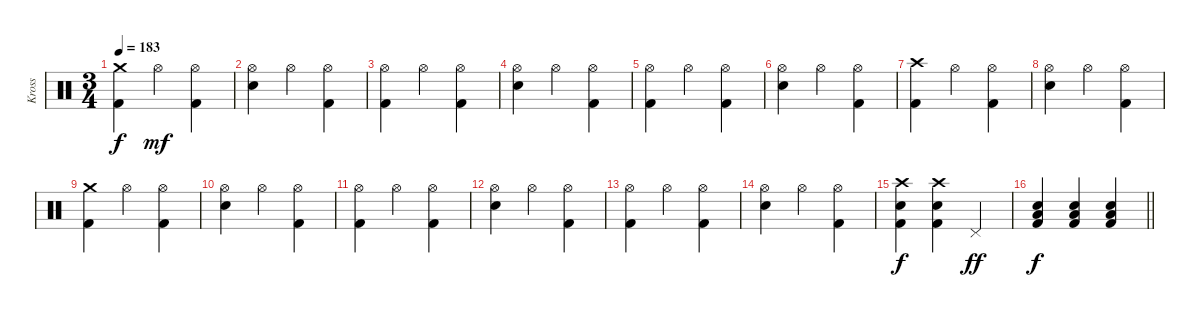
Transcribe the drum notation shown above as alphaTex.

\track ("Kross" "Kross") {instrument percussion}
\staff {score}
\articulation defaults
\ts (3 4)
\tempo 183
\clef neutral
\ks c
("Crash medium (hit)" "Kick (hit) 2").4{dy f} "Hi-Hat (open)".4{dy mf} ("Hi-Hat (open)" "Kick (hit) 2").4 |
("Hi-Hat (open)" "Electric Snare (hit)").4 "Hi-Hat (open)".4 ("Hi-Hat (open)" "Kick (hit) 2").4 |
("Hi-Hat (open)" "Kick (hit) 2").4 "Hi-Hat (open)".4 ("Hi-Hat (open)" "Kick (hit) 2").4 |
("Hi-Hat (open)" "Electric Snare (hit)").4 "Hi-Hat (open)".4 ("Hi-Hat (open)" "Kick (hit) 2").4 |
("Hi-Hat (open)" "Kick (hit) 2").4 "Hi-Hat (open)".4 ("Hi-Hat (open)" "Kick (hit) 2").4 |
("Hi-Hat (open)" "Electric Snare (hit)").4 "Hi-Hat (open)".4 ("Hi-Hat (open)" "Kick (hit) 2").4 |
("Crash high (hit)" "Kick (hit) 2").4 "Hi-Hat (open)".4 ("Hi-Hat (open)" "Kick (hit) 2").4 |
("Hi-Hat (open)" "Electric Snare (hit)").4 "Hi-Hat (open)".4 ("Hi-Hat (open)" "Kick (hit) 2").4 |
("Crash medium (hit)" "Kick (hit) 2").4 "Hi-Hat (open)".4 ("Hi-Hat (open)" "Kick (hit) 2").4 |
("Hi-Hat (open)" "Electric Snare (hit)").4 "Hi-Hat (open)".4 ("Hi-Hat (open)" "Kick (hit) 2").4 |
("Hi-Hat (open)" "Kick (hit) 2").4 "Hi-Hat (open)".4 ("Hi-Hat (open)" "Kick (hit) 2").4 |
("Hi-Hat (open)" "Electric Snare (hit)").4 "Hi-Hat (open)".4 ("Hi-Hat (open)" "Kick (hit) 2").4 |
("Hi-Hat (open)" "Kick (hit) 2").4 "Hi-Hat (open)".4 ("Hi-Hat (open)" "Kick (hit) 2").4 |
("Hi-Hat (open)" "Electric Snare (hit)").4 "Hi-Hat (open)".4 ("Hi-Hat (open)" "Kick (hit) 2").4 |
("Crash high (hit)" "Electric Snare (hit)" "Kick (hit) 2").4{dy f} ("Crash high (hit)" "Electric Snare (hit)" "Kick (hit) 2").4 "Pedal Hi-Hat (hit)".4{dy ff} |
\barLineRight lightlight
("Low Floor Tom (hit)" "Electric Snare (hit)" "Kick (hit) 2").4{dy f} ("Low Floor Tom (hit)" "Electric Snare (hit)" "Kick (hit) 2").4 ("Low Floor Tom (hit)" "Electric Snare (hit)" "Kick (hit) 2").4
